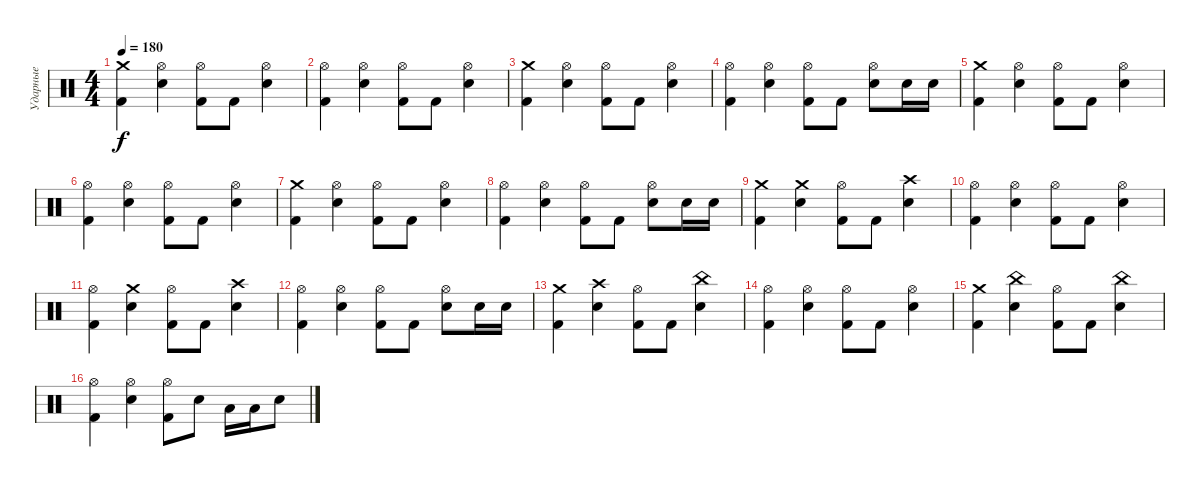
\track ("Ударные" "Ударные") {instrument percussion}
\staff {score}
\articulation defaults
\ts (4 4)
\tempo 180
\clef neutral
\ks c
("Crash medium (hit)" "Kick (hit) 2").4{dy f} ("Hi-Hat (open)" "Snare (hit) 2").4 ("Hi-Hat (open)" "Kick (hit) 2").8 "Kick (hit) 2".8 ("Hi-Hat (open)" "Snare (hit) 2").4 |
("Hi-Hat (open)" "Kick (hit) 2").4 ("Hi-Hat (open)" "Snare (hit) 2").4 ("Hi-Hat (open)" "Kick (hit) 2").8 "Kick (hit) 2".8 ("Hi-Hat (open)" "Snare (hit) 2").4 |
("Crash medium (hit)" "Kick (hit) 2").4 ("Hi-Hat (open)" "Snare (hit) 2").4 ("Hi-Hat (open)" "Kick (hit) 2").8 "Kick (hit) 2".8 ("Hi-Hat (open)" "Snare (hit) 2").4 |
("Hi-Hat (open)" "Kick (hit) 2").4 ("Hi-Hat (open)" "Snare (hit) 2").4 ("Hi-Hat (open)" "Kick (hit) 2").8 "Kick (hit) 2".8 ("Hi-Hat (open)" "Snare (hit) 2").8 "Snare (hit) 2".16 "Snare (hit) 2".16 |
("Crash medium (hit)" "Kick (hit) 2").4 ("Hi-Hat (open)" "Snare (hit) 2").4 ("Hi-Hat (open)" "Kick (hit) 2").8 "Kick (hit) 2".8 ("Hi-Hat (open)" "Snare (hit) 2").4 |
("Hi-Hat (open)" "Kick (hit) 2").4 ("Hi-Hat (open)" "Snare (hit) 2").4 ("Hi-Hat (open)" "Kick (hit) 2").8 "Kick (hit) 2".8 ("Hi-Hat (open)" "Snare (hit) 2").4 |
("Crash medium (hit)" "Kick (hit) 2").4 ("Hi-Hat (open)" "Snare (hit) 2").4 ("Hi-Hat (open)" "Kick (hit) 2").8 "Kick (hit) 2".8 ("Hi-Hat (open)" "Snare (hit) 2").4 |
("Hi-Hat (open)" "Kick (hit) 2").4 ("Hi-Hat (open)" "Snare (hit) 2").4 ("Hi-Hat (open)" "Kick (hit) 2").8 "Kick (hit) 2".8 ("Hi-Hat (open)" "Snare (hit) 2").8 "Snare (hit) 2".16 "Snare (hit) 2".16 |
("Crash medium (hit)" "Kick (hit) 2").4 ("Crash medium (hit)" "Snare (hit) 2").4 ("Hi-Hat (open)" "Kick (hit) 2").8 "Kick (hit) 2".8 ("Crash high (hit)" "Snare (hit) 2").4 |
("Hi-Hat (open)" "Kick (hit) 2").4 ("Hi-Hat (open)" "Snare (hit) 2").4 ("Hi-Hat (open)" "Kick (hit) 2").8 "Kick (hit) 2".8 ("Hi-Hat (open)" "Snare (hit) 2").4 |
("Hi-Hat (open)" "Kick (hit) 2").4 ("Crash medium (hit)" "Snare (hit) 2").4 ("Hi-Hat (open)" "Kick (hit) 2").8 "Kick (hit) 2".8 ("Crash high (hit)" "Snare (hit) 2").4 |
("Hi-Hat (open)" "Kick (hit) 2").4 ("Hi-Hat (open)" "Snare (hit) 2").4 ("Hi-Hat (open)" "Kick (hit) 2").8 "Kick (hit) 2".8 ("Hi-Hat (open)" "Snare (hit) 2").8 "Snare (hit) 2".16 "Snare (hit) 2".16 |
("Crash medium (hit)" "Kick (hit) 2").4 ("Crash high (hit)" "Snare (hit) 2").4 ("Hi-Hat (open)" "Kick (hit) 2").8 "Kick (hit) 2".8 ("China (hit)" "Snare (hit) 2").4 |
("Hi-Hat (open)" "Kick (hit) 2").4 ("Hi-Hat (open)" "Snare (hit) 2").4 ("Hi-Hat (open)" "Kick (hit) 2").8 "Kick (hit) 2".8 ("Hi-Hat (open)" "Snare (hit) 2").4 |
("Crash medium (hit)" "Kick (hit) 2").4 ("China (hit)" "Snare (hit) 2").4 ("Hi-Hat (open)" "Kick (hit) 2").8 "Kick (hit) 2".8 ("China (hit)" "Snare (hit) 2").4 |
("Hi-Hat (open)" "Kick (hit) 2").4 ("Hi-Hat (open)" "Snare (hit) 2").4 ("Hi-Hat (open)" "Kick (hit) 2").8 "Snare (hit) 2".8 "Low Tom (hit)".16 "Low Tom (hit)".16 "Snare (hit) 2".8
